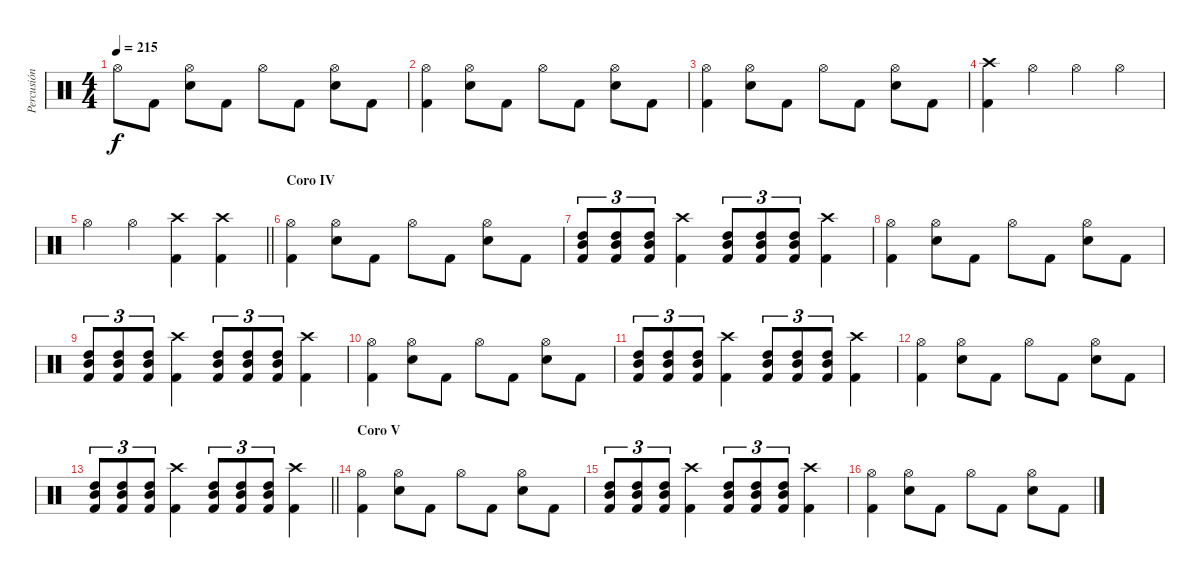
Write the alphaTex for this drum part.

\track ("Percusión" "Percusión") {instrument percussion}
\staff {score}
\articulation defaults
\ts (4 4)
\tempo 215
\clef neutral
\ks c "Hi-Hat (open)".8{dy f} "Kick (hit) 2".8
("Hi-Hat (open)" "Electric Snare (hit)").8 "Kick (hit) 2".8 "Hi-Hat (open)".8 "Kick (hit) 2".8 ("Hi-Hat (open)" "Electric Snare (hit)").8 "Kick (hit) 2".8 |
("Hi-Hat (open)" "Kick (hit) 2").4 ("Hi-Hat (open)" "Electric Snare (hit)").8 "Kick (hit) 2".8 "Hi-Hat (open)".8 "Kick (hit) 2".8 ("Hi-Hat (open)" "Electric Snare (hit)").8 "Kick (hit) 2".8 |
("Hi-Hat (open)" "Kick (hit) 2").4 ("Hi-Hat (open)" "Electric Snare (hit)").8 "Kick (hit) 2".8 "Hi-Hat (open)".8 "Kick (hit) 2".8 ("Hi-Hat (open)" "Electric Snare (hit)").8 "Kick (hit) 2".8 |
("Crash high (hit)" "Kick (hit) 2").4 "Hi-Hat (open)".4 "Hi-Hat (open)".4 "Hi-Hat (open)".4 |
\barLineRight lightlight "Hi-Hat (open)".4 "Hi-Hat (open)".4
("Crash high (hit)" "Kick (hit) 2").4 ("Crash high (hit)" "Kick (hit) 2").4 |
\section ("" "Coro IV")
("Hi-Hat (open)" "Kick (hit) 2").4 ("Hi-Hat (open)" "Electric Snare (hit)").8 "Kick (hit) 2".8 "Hi-Hat (open)".8 "Kick (hit) 2".8 ("Hi-Hat (open)" "Electric Snare (hit)").8 "Kick (hit) 2".8 |
("High Tom (hit)" "Mid Tom (hit)" "Kick (hit) 2").8{tu (3 2)} ("High Tom (hit)" "Mid Tom (hit)" "Kick (hit) 2").8{tu (3 2)} ("High Tom (hit)" "Mid Tom (hit)" "Kick (hit) 2").8{tu (3 2)} ("Crash high (hit)" "Kick (hit) 2").4 ("High Tom (hit)" "Mid Tom (hit)" "Kick (hit) 2").8{tu (3 2)} ("High Tom (hit)" "Mid Tom (hit)" "Kick (hit) 2").8{tu (3 2)} ("High Tom (hit)" "Mid Tom (hit)" "Kick (hit) 2").8{tu (3 2)} ("Crash high (hit)" "Kick (hit) 2").4 |
("Hi-Hat (open)" "Kick (hit) 2").4 ("Hi-Hat (open)" "Electric Snare (hit)").8 "Kick (hit) 2".8 "Hi-Hat (open)".8 "Kick (hit) 2".8 ("Hi-Hat (open)" "Electric Snare (hit)").8 "Kick (hit) 2".8 |
("High Tom (hit)" "Mid Tom (hit)" "Kick (hit) 2").8{tu (3 2)} ("High Tom (hit)" "Mid Tom (hit)" "Kick (hit) 2").8{tu (3 2)} ("High Tom (hit)" "Mid Tom (hit)" "Kick (hit) 2").8{tu (3 2)} ("Crash high (hit)" "Kick (hit) 2").4 ("High Tom (hit)" "Mid Tom (hit)" "Kick (hit) 2").8{tu (3 2)} ("High Tom (hit)" "Mid Tom (hit)" "Kick (hit) 2").8{tu (3 2)} ("High Tom (hit)" "Mid Tom (hit)" "Kick (hit) 2").8{tu (3 2)} ("Crash high (hit)" "Kick (hit) 2").4 |
("Hi-Hat (open)" "Kick (hit) 2").4 ("Hi-Hat (open)" "Electric Snare (hit)").8 "Kick (hit) 2".8 "Hi-Hat (open)".8 "Kick (hit) 2".8 ("Hi-Hat (open)" "Electric Snare (hit)").8 "Kick (hit) 2".8 |
("High Tom (hit)" "Mid Tom (hit)" "Kick (hit) 2").8{tu (3 2)} ("High Tom (hit)" "Mid Tom (hit)" "Kick (hit) 2").8{tu (3 2)} ("High Tom (hit)" "Mid Tom (hit)" "Kick (hit) 2").8{tu (3 2)} ("Crash high (hit)" "Kick (hit) 2").4 ("High Tom (hit)" "Mid Tom (hit)" "Kick (hit) 2").8{tu (3 2)} ("High Tom (hit)" "Mid Tom (hit)" "Kick (hit) 2").8{tu (3 2)} ("High Tom (hit)" "Mid Tom (hit)" "Kick (hit) 2").8{tu (3 2)} ("Crash high (hit)" "Kick (hit) 2").4 |
("Hi-Hat (open)" "Kick (hit) 2").4 ("Hi-Hat (open)" "Electric Snare (hit)").8 "Kick (hit) 2".8 "Hi-Hat (open)".8 "Kick (hit) 2".8 ("Hi-Hat (open)" "Electric Snare (hit)").8 "Kick (hit) 2".8 |
\barLineRight lightlight
("High Tom (hit)" "Mid Tom (hit)" "Kick (hit) 2").8{tu (3 2)} ("High Tom (hit)" "Mid Tom (hit)" "Kick (hit) 2").8{tu (3 2)} ("High Tom (hit)" "Mid Tom (hit)" "Kick (hit) 2").8{tu (3 2)} ("Crash high (hit)" "Kick (hit) 2").4 ("High Tom (hit)" "Mid Tom (hit)" "Kick (hit) 2").8{tu (3 2)} ("High Tom (hit)" "Mid Tom (hit)" "Kick (hit) 2").8{tu (3 2)} ("High Tom (hit)" "Mid Tom (hit)" "Kick (hit) 2").8{tu (3 2)} ("Crash high (hit)" "Kick (hit) 2").4 |
\section ("" "Coro V")
("Hi-Hat (open)" "Kick (hit) 2").4 ("Hi-Hat (open)" "Electric Snare (hit)").8 "Kick (hit) 2".8 "Hi-Hat (open)".8 "Kick (hit) 2".8 ("Hi-Hat (open)" "Electric Snare (hit)").8 "Kick (hit) 2".8 |
("High Tom (hit)" "Mid Tom (hit)" "Kick (hit) 2").8{tu (3 2)} ("High Tom (hit)" "Mid Tom (hit)" "Kick (hit) 2").8{tu (3 2)} ("High Tom (hit)" "Mid Tom (hit)" "Kick (hit) 2").8{tu (3 2)} ("Crash high (hit)" "Kick (hit) 2").4 ("High Tom (hit)" "Mid Tom (hit)" "Kick (hit) 2").8{tu (3 2)} ("High Tom (hit)" "Mid Tom (hit)" "Kick (hit) 2").8{tu (3 2)} ("High Tom (hit)" "Mid Tom (hit)" "Kick (hit) 2").8{tu (3 2)} ("Crash high (hit)" "Kick (hit) 2").4 |
("Hi-Hat (open)" "Kick (hit) 2").4 ("Hi-Hat (open)" "Electric Snare (hit)").8 "Kick (hit) 2".8 "Hi-Hat (open)".8 "Kick (hit) 2".8 ("Hi-Hat (open)" "Electric Snare (hit)").8 "Kick (hit) 2".8
